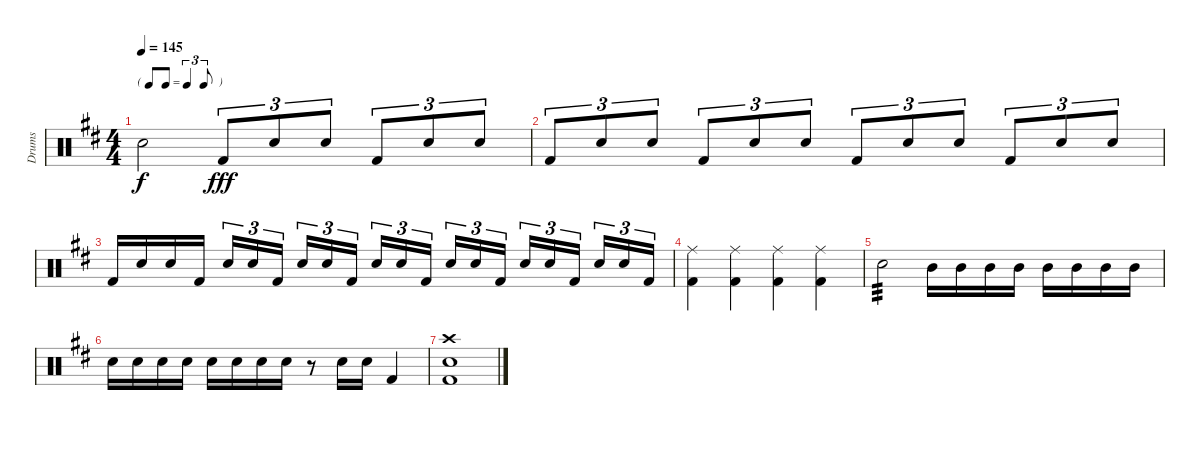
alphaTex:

\track ("Drums" "Drums") {instrument percussion}
\staff {score}
\articulation defaults
\ts (4 4)
\tf triplet8th
\tempo 145
\clef neutral
\ks d "Snare (hit)"{t}.2{dy f} "Kick (hit) 2".8{tu (3 2) dy fff} "Snare (hit) 2".8{tu (3 2)} "Snare (hit) 2".8{tu (3 2)} "Kick (hit) 2".8{tu (3 2)} "Snare (hit) 2".8{tu (3 2)} "Snare (hit) 2".8{tu (3 2)}
|
"Kick (hit) 2".8{tu (3 2)} "Snare (hit) 2".8{tu (3 2)} "Snare (hit) 2".8{tu (3 2)} "Kick (hit) 2".8{tu (3 2)} "Snare (hit) 2".8{tu (3 2)} "Snare (hit) 2".8{tu (3 2)} "Kick (hit) 2".8{tu (3 2)} "Snare (hit) 2".8{tu (3 2)} "Snare (hit) 2".8{tu (3 2)} "Kick (hit) 2".8{tu (3 2)} "Snare (hit) 2".8{tu (3 2)} "Snare (hit) 2".8{tu (3 2)} |
"Kick (hit) 2".16 "Snare (hit) 2".16 "Snare (hit) 2".16 "Kick (hit) 2".16 "Snare (hit) 2".16{tu (3 2)} "Snare (hit) 2".16{tu (3 2)} "Kick (hit) 2".16{tu (3 2) beam splitsecondary} "Snare (hit) 2".16{tu (3 2)} "Snare (hit) 2".16{tu (3 2)} "Kick (hit) 2".16{tu (3 2)} "Snare (hit) 2".16{tu (3 2)} "Snare (hit) 2".16{tu (3 2)} "Kick (hit) 2".16{tu (3 2) beam splitsecondary} "Snare (hit) 2".16{tu (3 2)} "Snare (hit) 2".16{tu (3 2)} "Kick (hit) 2".16{tu (3 2)} "Snare (hit) 2".16{tu (3 2)} "Snare (hit) 2".16{tu (3 2)} "Kick (hit) 2".16{tu (3 2) beam splitsecondary} "Snare (hit) 2".16{tu (3 2)} "Snare (hit) 2".16{tu (3 2)} "Kick (hit) 2".16{tu (3 2)} |
("Ride (middle)" "Kick (hit) 2").4 ("Ride (middle)" "Kick (hit) 2").4 ("Ride (middle)" "Kick (hit) 2").4 ("Ride (middle)" "Kick (hit) 2").4 |
"Snare (hit) 2".2{tp 3} "Mid Tom (hit)".16 "Mid Tom (hit)".16 "Mid Tom (hit)".16 "Mid Tom (hit)".16 "Mid Tom (hit)".16 "Mid Tom (hit)".16 "Mid Tom (hit)".16 "Mid Tom (hit)".16 |
"Snare (hit) 2".16 "Snare (hit) 2".16 "Snare (hit) 2".16 "Snare (hit) 2".16 "Snare (hit) 2".16 "Snare (hit) 2".16 "Snare (hit) 2".16 "Snare (hit) 2".16 r.8 "Snare (hit) 2".16 "Snare (hit) 2".16 "Kick (hit) 2".4 |
("Crash high (hit)" "Snare (hit) 2" "Kick (hit) 2").1
